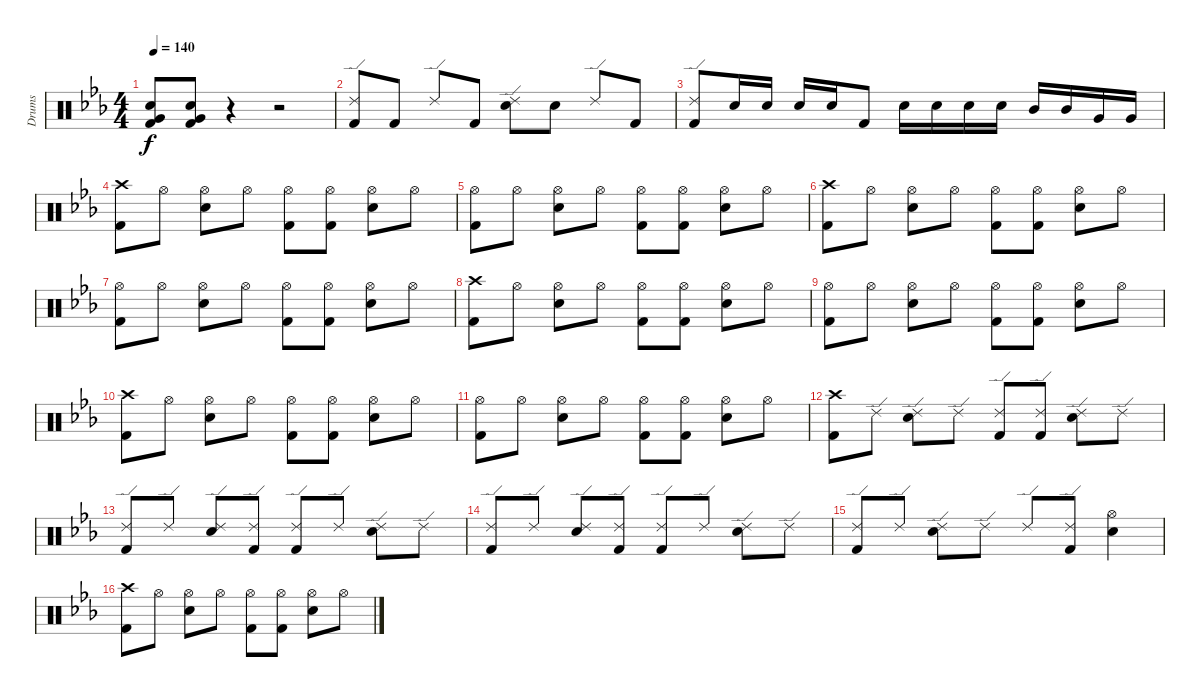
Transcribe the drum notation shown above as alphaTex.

\track ("Drums" "Drums") {instrument percussion}
\staff {score}
\articulation defaults
\ts (4 4)
\tempo 140
\clef neutral
\ks eb
("Snare (hit) 2" "Very Low Tom (hit)" "Kick (hit) 2").8{dy f} ("Snare (hit) 2" "Very Low Tom (hit)" "Kick (hit) 2").8 r.4 r.2 |
("Ride (edge) 2" "Kick (hit) 2").8 "Kick (hit) 2".8 "Ride (edge) 2".8 "Kick (hit) 2".8 ("Ride (edge) 2" "Snare (hit) 2").8 "Snare (hit) 2".8 "Ride (edge) 2".8 "Kick (hit) 2".8 |
("Ride (edge) 2" "Kick (hit) 2").8 "Snare (hit) 2".16 "Snare (hit) 2".16 "Snare (hit) 2".16 "Snare (hit) 2".16 "Kick (hit) 2".8 "Snare (hit) 2".16 "Snare (hit) 2".16 "Snare (hit) 2".16 "Snare (hit) 2".16 "Mid Tom (hit)".16 "Mid Tom (hit)".16 "Very Low Tom (hit)".16 "Very Low Tom (hit)".16 |
("Crash high (hit)" "Kick (hit) 2").8 "Hi-Hat (open)".8 ("Hi-Hat (open)" "Snare (hit) 2").8 "Hi-Hat (open)".8 ("Hi-Hat (open)" "Kick (hit) 2").8 ("Hi-Hat (open)" "Kick (hit) 2").8 ("Hi-Hat (open)" "Snare (hit) 2").8 "Hi-Hat (open)".8 |
("Hi-Hat (open)" "Kick (hit) 2").8 "Hi-Hat (open)".8 ("Hi-Hat (open)" "Snare (hit) 2").8 "Hi-Hat (open)".8 ("Hi-Hat (open)" "Kick (hit) 2").8 ("Hi-Hat (open)" "Kick (hit) 2").8 ("Hi-Hat (open)" "Snare (hit) 2").8 "Hi-Hat (open)".8 |
("Crash high (hit)" "Kick (hit) 2").8 "Hi-Hat (open)".8 ("Hi-Hat (open)" "Snare (hit) 2").8 "Hi-Hat (open)".8 ("Hi-Hat (open)" "Kick (hit) 2").8 ("Hi-Hat (open)" "Kick (hit) 2").8 ("Hi-Hat (open)" "Snare (hit) 2").8 "Hi-Hat (open)".8 |
("Hi-Hat (open)" "Kick (hit) 2").8 "Hi-Hat (open)".8 ("Hi-Hat (open)" "Snare (hit) 2").8 "Hi-Hat (open)".8 ("Hi-Hat (open)" "Kick (hit) 2").8 ("Hi-Hat (open)" "Kick (hit) 2").8 ("Hi-Hat (open)" "Snare (hit) 2").8 "Hi-Hat (open)".8 |
("Crash high (hit)" "Kick (hit) 2").8 "Hi-Hat (open)".8 ("Hi-Hat (open)" "Snare (hit) 2").8 "Hi-Hat (open)".8 ("Hi-Hat (open)" "Kick (hit) 2").8 ("Hi-Hat (open)" "Kick (hit) 2").8 ("Hi-Hat (open)" "Snare (hit) 2").8 "Hi-Hat (open)".8 |
("Hi-Hat (open)" "Kick (hit) 2").8 "Hi-Hat (open)".8 ("Hi-Hat (open)" "Snare (hit) 2").8 "Hi-Hat (open)".8 ("Hi-Hat (open)" "Kick (hit) 2").8 ("Hi-Hat (open)" "Kick (hit) 2").8 ("Hi-Hat (open)" "Snare (hit) 2").8 "Hi-Hat (open)".8 |
("Crash high (hit)" "Kick (hit) 2").8 "Hi-Hat (open)".8 ("Hi-Hat (open)" "Snare (hit) 2").8 "Hi-Hat (open)".8 ("Hi-Hat (open)" "Kick (hit) 2").8 ("Hi-Hat (open)" "Kick (hit) 2").8 ("Hi-Hat (open)" "Snare (hit) 2").8 "Hi-Hat (open)".8 |
("Hi-Hat (open)" "Kick (hit) 2").8 "Hi-Hat (open)".8 ("Hi-Hat (open)" "Snare (hit) 2").8 "Hi-Hat (open)".8 ("Hi-Hat (open)" "Kick (hit) 2").8 ("Hi-Hat (open)" "Kick (hit) 2").8 ("Hi-Hat (open)" "Snare (hit) 2").8 "Hi-Hat (open)".8 |
("Crash high (hit)" "Kick (hit) 2").8 "Ride (edge) 2".8 ("Ride (edge) 2" "Snare (hit) 2").8 "Ride (edge) 2".8 ("Ride (edge) 2" "Kick (hit) 2").8 ("Ride (edge) 2" "Kick (hit) 2").8 ("Ride (edge) 2" "Snare (hit) 2").8 "Ride (edge) 2".8 |
("Ride (edge) 2" "Kick (hit) 2").8 "Ride (edge) 2".8 ("Ride (edge) 2" "Snare (hit) 2").8 ("Ride (edge) 2" "Kick (hit) 2").8 ("Ride (edge) 2" "Kick (hit) 2").8 "Ride (edge) 2".8 ("Ride (edge) 2" "Snare (hit) 2").8 "Ride (edge) 2".8 |
("Ride (edge) 2" "Kick (hit) 2").8 "Ride (edge) 2".8 ("Ride (edge) 2" "Snare (hit) 2").8 ("Ride (edge) 2" "Kick (hit) 2").8 ("Ride (edge) 2" "Kick (hit) 2").8 "Ride (edge) 2".8 ("Ride (edge) 2" "Snare (hit) 2").8 "Ride (edge) 2".8 |
("Ride (edge) 2" "Kick (hit) 2").8 "Ride (edge) 2".8 ("Ride (edge) 2" "Snare (hit) 2").8 "Ride (edge) 2".8 "Ride (edge) 2".8 ("Ride (edge) 2" "Kick (hit) 2").8 ("Hi-Hat (open)" "Snare (hit) 2").4 |
("Crash high (hit)" "Kick (hit) 2").8 "Hi-Hat (open)".8 ("Hi-Hat (open)" "Snare (hit) 2").8 "Hi-Hat (open)".8 ("Hi-Hat (open)" "Kick (hit) 2").8 ("Hi-Hat (open)" "Kick (hit) 2").8 ("Hi-Hat (open)" "Snare (hit) 2").8 "Hi-Hat (open)".8
